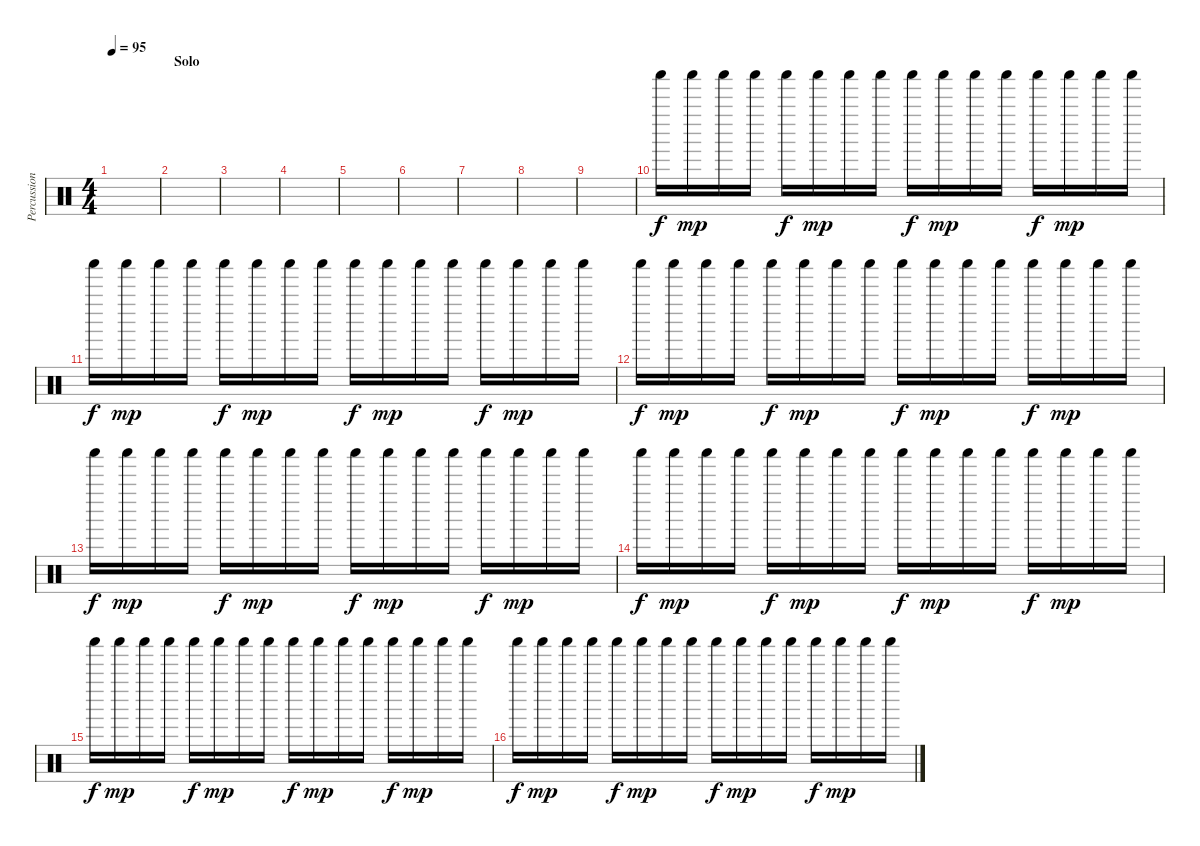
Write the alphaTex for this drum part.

\track ("Percussion" "Percussion") {instrument percussion}
\staff {score}
\articulation defaults
\ts (4 4)
\tempo 95
\clef neutral
\ks c
|
\section ("" "Solo")
|
|
|
|
|
|
|
|
"Shaker (hit)".16{dy f} "Shaker (hit)".16{dy mp} "Shaker (hit)".16 "Shaker (hit)".16 "Shaker (hit)".16{dy f} "Shaker (hit)".16{dy mp} "Shaker (hit)".16 "Shaker (hit)".16 "Shaker (hit)".16{dy f} "Shaker (hit)".16{dy mp} "Shaker (hit)".16 "Shaker (hit)".16 "Shaker (hit)".16{dy f} "Shaker (hit)".16{dy mp} "Shaker (hit)".16 "Shaker (hit)".16 |
"Shaker (hit)".16{dy f} "Shaker (hit)".16{dy mp} "Shaker (hit)".16 "Shaker (hit)".16 "Shaker (hit)".16{dy f} "Shaker (hit)".16{dy mp} "Shaker (hit)".16 "Shaker (hit)".16 "Shaker (hit)".16{dy f} "Shaker (hit)".16{dy mp} "Shaker (hit)".16 "Shaker (hit)".16 "Shaker (hit)".16{dy f} "Shaker (hit)".16{dy mp} "Shaker (hit)".16 "Shaker (hit)".16 |
"Shaker (hit)".16{dy f} "Shaker (hit)".16{dy mp} "Shaker (hit)".16 "Shaker (hit)".16 "Shaker (hit)".16{dy f} "Shaker (hit)".16{dy mp} "Shaker (hit)".16 "Shaker (hit)".16 "Shaker (hit)".16{dy f} "Shaker (hit)".16{dy mp} "Shaker (hit)".16 "Shaker (hit)".16 "Shaker (hit)".16{dy f} "Shaker (hit)".16{dy mp} "Shaker (hit)".16 "Shaker (hit)".16 |
"Shaker (hit)".16{dy f} "Shaker (hit)".16{dy mp} "Shaker (hit)".16 "Shaker (hit)".16 "Shaker (hit)".16{dy f} "Shaker (hit)".16{dy mp} "Shaker (hit)".16 "Shaker (hit)".16 "Shaker (hit)".16{dy f} "Shaker (hit)".16{dy mp} "Shaker (hit)".16 "Shaker (hit)".16 "Shaker (hit)".16{dy f} "Shaker (hit)".16{dy mp} "Shaker (hit)".16 "Shaker (hit)".16 |
"Shaker (hit)".16{dy f} "Shaker (hit)".16{dy mp} "Shaker (hit)".16 "Shaker (hit)".16 "Shaker (hit)".16{dy f} "Shaker (hit)".16{dy mp} "Shaker (hit)".16 "Shaker (hit)".16 "Shaker (hit)".16{dy f} "Shaker (hit)".16{dy mp} "Shaker (hit)".16 "Shaker (hit)".16 "Shaker (hit)".16{dy f} "Shaker (hit)".16{dy mp} "Shaker (hit)".16 "Shaker (hit)".16 |
"Shaker (hit)".16{dy f} "Shaker (hit)".16{dy mp} "Shaker (hit)".16 "Shaker (hit)".16 "Shaker (hit)".16{dy f} "Shaker (hit)".16{dy mp} "Shaker (hit)".16 "Shaker (hit)".16 "Shaker (hit)".16{dy f} "Shaker (hit)".16{dy mp} "Shaker (hit)".16 "Shaker (hit)".16 "Shaker (hit)".16{dy f} "Shaker (hit)".16{dy mp} "Shaker (hit)".16 "Shaker (hit)".16 |
"Shaker (hit)".16{dy f} "Shaker (hit)".16{dy mp} "Shaker (hit)".16 "Shaker (hit)".16 "Shaker (hit)".16{dy f} "Shaker (hit)".16{dy mp} "Shaker (hit)".16 "Shaker (hit)".16 "Shaker (hit)".16{dy f} "Shaker (hit)".16{dy mp} "Shaker (hit)".16 "Shaker (hit)".16 "Shaker (hit)".16{dy f} "Shaker (hit)".16{dy mp} "Shaker (hit)".16 "Shaker (hit)".16
